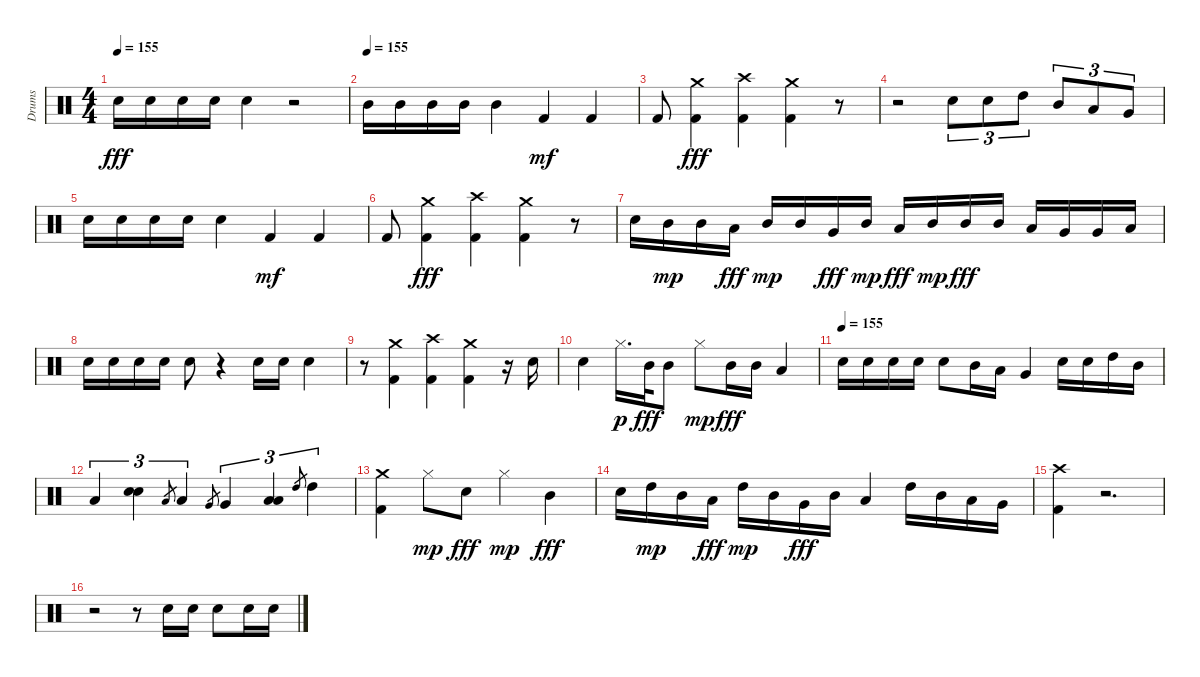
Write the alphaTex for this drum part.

\track ("Drums" "Drums") {instrument percussion}
\staff {score}
\articulation defaults
\ts (4 4)
\tempo 155
\clef neutral
\ks c "Electric Snare (hit)".16{dy fff} "Electric Snare (hit)".16 "Electric Snare (hit)".16 "Electric Snare (hit)".16 "Electric Snare (hit)".4
r.2 |
\tempo (155)
"Mid Tom (hit)".16 "Mid Tom (hit)".16 "Mid Tom (hit)".16 "Mid Tom (hit)".16 "Mid Tom (hit)".4 "Kick (hit) 2".4{dy mf} "Kick (hit) 2".4 |
"Kick (hit) 2".8 ("Crash medium (hit)" "Kick (hit) 2").4{dy fff} ("Crash high (hit)" "Kick (hit) 2").4 ("Crash medium (hit)" "Kick (hit) 2").4 r.8 |
r.2 "Electric Snare (hit)".8{tu (3 2)} "Electric Snare (hit)".8{tu (3 2)} "High Tom (hit)".8{tu (3 2)} "Mid Tom (hit)".8{tu (3 2)} "Low Tom (hit)".8{tu (3 2)} "Very Low Tom (hit)".8{tu (3 2)} |
"Electric Snare (hit)".16 "Electric Snare (hit)".16 "Electric Snare (hit)".16 "Electric Snare (hit)".16 "Electric Snare (hit)".4 "Kick (hit) 2".4{dy mf} "Kick (hit) 2".4 |
"Kick (hit) 2".8 ("Crash medium (hit)" "Kick (hit) 2").4{dy fff} ("Crash high (hit)" "Kick (hit) 2").4 ("Crash medium (hit)" "Kick (hit) 2").4 r.8 |
"Electric Snare (hit)".16 "Mid Tom (hit)".16{dy mp} "Mid Tom (hit)".16 "Low Tom (hit)".16{dy fff} "Mid Tom (hit)".16{dy mp} "Mid Tom (hit)".16 "Very Low Tom (hit)".16{dy fff} "Mid Tom (hit)".16{dy mp} "Low Floor Tom (hit)".16{dy fff} "Mid Tom (hit)".16{dy mp} "Mid Tom (hit)".16{dy fff} "Mid Tom (hit)".16 "Low Tom (hit)".16 "Very Low Tom (hit)".16 "Very Low Tom (hit)".16 "Low Floor Tom (hit)".16 |
"Electric Snare (hit)".16 "Electric Snare (hit)".16 "Electric Snare (hit)".16 "Electric Snare (hit)".16 "Electric Snare (hit)".8 r.4 "Electric Snare (hit)".16 "Electric Snare (hit)".16 "Electric Snare (hit)".4 |
r.8 ("Crash medium (hit)" "Kick (hit) 2").4 ("Crash high (hit)" "Kick (hit) 2").4 ("Crash medium (hit)" "Kick (hit) 2").4 r.16 "Electric Snare (hit)".16 |
"Electric Snare (hit)".4 "Hi-Hat (closed)".16{d dy p} "Mid Tom (hit)".32{dy fff} "Mid Tom (hit)".8 "Hi-Hat (closed)".8{dy mp} "Mid Tom (hit)".16{dy fff} "Mid Tom (hit)".16 "Low Tom (hit)".4 |
\tempo (155)
"Electric Snare (hit)".16 "Electric Snare (hit)".16 "Electric Snare (hit)".16 "Electric Snare (hit)".16 "Electric Snare (hit)".8 "Mid Tom (hit)".16 "Low Tom (hit)".16 "Very Low Tom (hit)".4 "Electric Snare (hit)".16 "Electric Snare (hit)".16 "High Tom (hit)".16 "Mid Tom (hit)".16 |
"Low Tom (hit)".4{tu (3 2)} ("Electric Snare (hit)" "Electric Snare (hit)").4{tu (3 2)} "Low Tom (hit)".8{gr} "Low Tom (hit)".4{tu (3 2)} "Very Low Tom (hit)".8{gr} "Very Low Tom (hit)".4{tu (3 2)} ("Low Floor Tom (hit)" "Low Floor Tom (hit)").4{tu (3 2)} "High Tom (hit)".8{gr} "High Tom (hit)".4{tu (3 2)} |
("Crash medium (hit)" "Kick (hit) 2").4 "Hi-Hat (closed)".8{dy mp} "Electric Snare (hit)".8{dy fff} "Hi-Hat (closed)".4{dy mp} "Mid Tom (hit)".4{dy fff} |
"Electric Snare (hit)".16 "High Tom (hit)".16{dy mp} "Mid Tom (hit)".16 "Low Tom (hit)".16{dy fff} "High Tom (hit)".16{dy mp} "Mid Tom (hit)".16 "Very Low Tom (hit)".16{dy fff} "Mid Tom (hit)".16 "Low Floor Tom (hit)".4 "High Tom (hit)".16 "Mid Tom (hit)".16 "Low Tom (hit)".16 "Very Low Tom (hit)".16 |
("Crash high (hit)" "Kick (hit) 2").4 r.2{d} |
r.2 r.8 "Electric Snare (hit)".16 "Electric Snare (hit)".16 "Electric Snare (hit)".8 "Electric Snare (hit)".16 "Electric Snare (hit)".16
